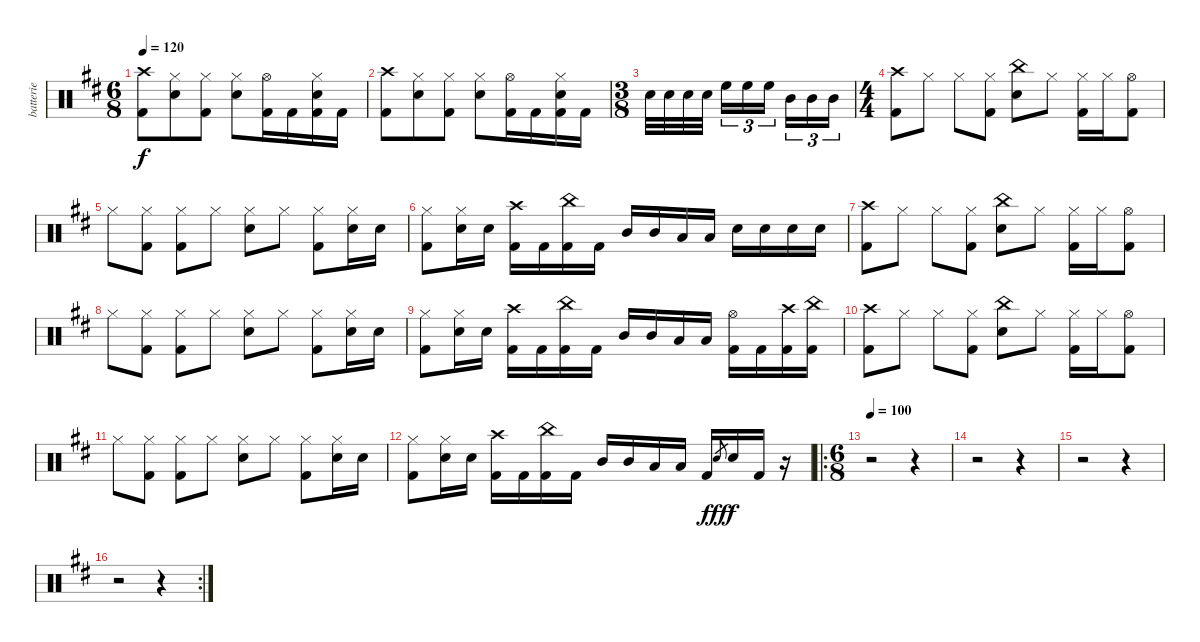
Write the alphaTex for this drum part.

\track ("batterie" "batterie") {instrument percussion}
\staff {score}
\articulation defaults
\ts (6 8)
\tempo 120
\clef neutral
\ks bminor
("Crash high (hit)" "Kick (hit) 2").8{dy f} ("Hi-Hat (closed)" "Snare (hit) 2").8 ("Hi-Hat (closed)" "Kick (hit) 2").8 ("Hi-Hat (closed)" "Snare (hit) 2").8 ("Hi-Hat (open)" "Kick (hit) 2").16 "Kick (hit) 2".16 ("Hi-Hat (closed)" "Snare (hit) 2" "Kick (hit) 2").16 "Kick (hit) 2".16 |
("Crash high (hit)" "Kick (hit) 2").8 ("Hi-Hat (closed)" "Snare (hit) 2").8 ("Hi-Hat (closed)" "Kick (hit) 2").8 ("Hi-Hat (closed)" "Snare (hit) 2").8 ("Hi-Hat (open)" "Kick (hit) 2").16 "Kick (hit) 2".16 ("Hi-Hat (closed)" "Snare (hit) 2" "Kick (hit) 2").16 "Kick (hit) 2".16 |
\ts (3 8)
"Snare (hit) 2".32 "Snare (hit) 2".32 "Snare (hit) 2".32 "Snare (hit) 2".32 "High Floor Tom (hit)".16{tu (3 2)} "High Floor Tom (hit)".16{tu (3 2)} "High Floor Tom (hit)".16{tu (3 2)} "Mid Tom (hit)".16{tu (3 2)} "Mid Tom (hit)".16{tu (3 2)} "Mid Tom (hit)".16{tu (3 2)} |
\ts (4 4)
("Crash high (hit)" "Kick (hit) 2").8 "Hi-Hat (closed)".8 "Hi-Hat (closed)".8 ("Hi-Hat (closed)" "Kick (hit) 2").8 ("China (hit)" "Snare (hit) 2").8 "Hi-Hat (closed)".8 ("Hi-Hat (closed)" "Kick (hit) 2").16 "Hi-Hat (closed)".16 ("Hi-Hat (open)" "Kick (hit) 2").8 |
"Hi-Hat (closed)".8 ("Hi-Hat (closed)" "Kick (hit) 2").8 ("Hi-Hat (closed)" "Kick (hit) 2").8 "Hi-Hat (closed)".8 ("Hi-Hat (closed)" "Snare (hit) 2").8 "Hi-Hat (closed)".8 ("Hi-Hat (closed)" "Kick (hit) 2").8 ("Hi-Hat (closed)" "Snare (hit) 2").16 "Snare (hit) 2".16 |
("Hi-Hat (closed)" "Kick (hit) 2").8 ("Hi-Hat (closed)" "Snare (hit) 2").16 "Snare (hit) 2".16 ("Crash high (hit)" "Kick (hit) 2").16 "Kick (hit) 2".16 ("China (hit)" "Kick (hit) 2").16 "Kick (hit) 2".16 "Mid Tom (hit)".16 "Mid Tom (hit)".16 "Low Tom (hit)".16 "Low Tom (hit)".16 "Snare (hit) 2".16 "Snare (hit) 2".16 "Snare (hit) 2".16 "Snare (hit) 2".16 |
("Crash high (hit)" "Kick (hit) 2").8 "Hi-Hat (closed)".8 "Hi-Hat (closed)".8 ("Hi-Hat (closed)" "Kick (hit) 2").8 ("China (hit)" "Snare (hit) 2").8 "Hi-Hat (closed)".8 ("Hi-Hat (closed)" "Kick (hit) 2").16 "Hi-Hat (closed)".16 ("Hi-Hat (open)" "Kick (hit) 2").8 |
"Hi-Hat (closed)".8 ("Hi-Hat (closed)" "Kick (hit) 2").8 ("Hi-Hat (closed)" "Kick (hit) 2").8 "Hi-Hat (closed)".8 ("Hi-Hat (closed)" "Snare (hit) 2").8 "Hi-Hat (closed)".8 ("Hi-Hat (closed)" "Kick (hit) 2").8 ("Hi-Hat (closed)" "Snare (hit) 2").16 "Snare (hit) 2".16 |
("Hi-Hat (closed)" "Kick (hit) 2").8 ("Hi-Hat (closed)" "Snare (hit) 2").16 "Snare (hit) 2".16 ("Crash high (hit)" "Kick (hit) 2").16 "Kick (hit) 2".16 ("China (hit)" "Kick (hit) 2").16 "Kick (hit) 2".16 "Mid Tom (hit)".16 "Mid Tom (hit)".16 "Low Tom (hit)".16 "Low Tom (hit)".16 ("Hi-Hat (open)" "Kick (hit) 2").16 "Kick (hit) 2".16 ("Crash high (hit)" "Kick (hit) 2").16 ("China (hit)" "Kick (hit) 2").16 |
("Crash high (hit)" "Kick (hit) 2").8 "Hi-Hat (closed)".8 "Hi-Hat (closed)".8 ("Hi-Hat (closed)" "Kick (hit) 2").8 ("China (hit)" "Snare (hit) 2").8 "Hi-Hat (closed)".8 ("Hi-Hat (closed)" "Kick (hit) 2").16 "Hi-Hat (closed)".16 ("Hi-Hat (open)" "Kick (hit) 2").8 |
"Hi-Hat (closed)".8 ("Hi-Hat (closed)" "Kick (hit) 2").8 ("Hi-Hat (closed)" "Kick (hit) 2").8 "Hi-Hat (closed)".8 ("Hi-Hat (closed)" "Snare (hit) 2").8 "Hi-Hat (closed)".8 ("Hi-Hat (closed)" "Kick (hit) 2").8 ("Hi-Hat (closed)" "Snare (hit) 2").16 "Snare (hit) 2".16 |
("Hi-Hat (closed)" "Kick (hit) 2").8 ("Hi-Hat (closed)" "Snare (hit) 2").16 "Snare (hit) 2".16 ("Crash high (hit)" "Kick (hit) 2").16 "Kick (hit) 2".16 ("China (hit)" "Kick (hit) 2").16 "Kick (hit) 2".16 "Mid Tom (hit)".16 "Mid Tom (hit)".16 "Low Tom (hit)".16 "Low Tom (hit)".16 "Kick (hit) 2".16 "Snare (hit) 2"{h}.8{gr dy fff} "Snare (hit) 2".16{dy f} "Kick (hit) 2".16 r.16 |
\ro
\ts (6 8)
\tempo 100
r.2 r.4 |
r.2 r.4 |
r.2 r.4 |
\rc 2
r.2 r.4
